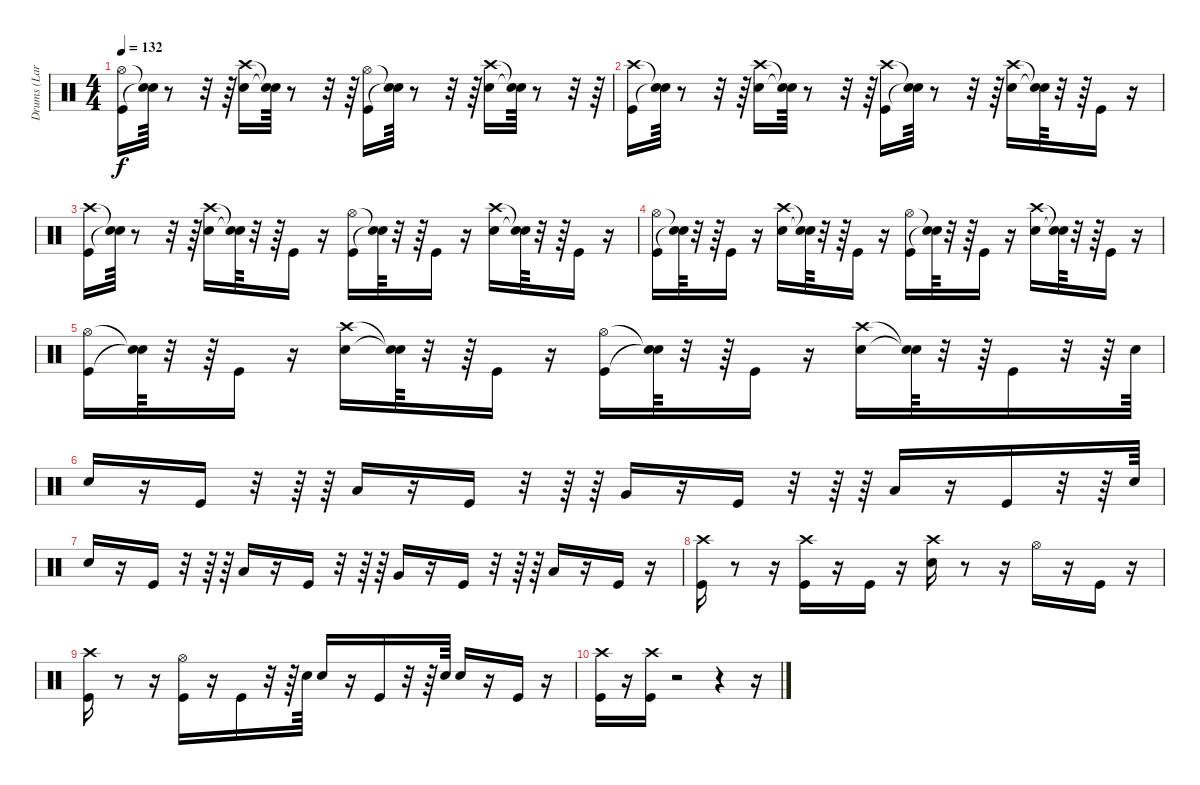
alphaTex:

\track ("Drums (Lars)" "Drums (Lar") {instrument percussion}
\staff {score}
\articulation defaults
\ts (4 4)
\tempo 132
\clef neutral
\ks c
("Hi-Hat (open)" "Kick (hit)").16{dy f} ("Snare (hit)"{t} "Snare (hit)"{t}).64 r.8 r.32 r.64 ("Snare (hit) 2" "Crash high (hit)").16 ("Snare (hit)"{t} "Snare (hit)"{t}).64 r.8 r.32 r.64 ("Kick (hit)" "Hi-Hat (open)").16 ("Snare (hit)"{t} "Snare (hit)"{t}).64 r.8 r.32 r.64 ("Snare (hit) 2" "Crash high (hit)").16 ("Snare (hit)"{t} "Snare (hit)"{t}).64 r.8 r.32 r.64 |
("Kick (hit)" "Crash high (hit)").16 ("Snare (hit)"{t} "Snare (hit)"{t}).64 r.8 r.32 r.64 ("Snare (hit) 2" "Crash high (hit)").16 ("Snare (hit)"{t} "Snare (hit)"{t}).64 r.8 r.32 r.64 ("Kick (hit)" "Crash high (hit)").16 ("Snare (hit)"{t} "Snare (hit)"{t}).64 r.8 r.32 r.64 ("Snare (hit) 2" "Crash high (hit)").16 ("Snare (hit)"{t} "Snare (hit)"{t}).64 r.32 r.64 "Kick (hit)".16 r.16 |
("Kick (hit)" "Crash high (hit)").16 ("Snare (hit)"{t} "Snare (hit)"{t}).64 r.8 r.32 r.64 ("Snare (hit) 2" "Crash high (hit)").16 ("Snare (hit)"{t} "Snare (hit)"{t}).64 r.32 r.64 "Kick (hit)".16 r.16 ("Hi-Hat (open)" "Kick (hit)").16 ("Snare (hit)"{t} "Snare (hit)"{t}).64 r.32 r.64 "Kick (hit)".16 r.16 ("Snare (hit) 2" "Crash high (hit)").16 ("Snare (hit)"{t} "Snare (hit)"{t}).64 r.32 r.64 "Kick (hit)".16 r.16 |
("Kick (hit)" "Hi-Hat (open)").16 ("Snare (hit)"{t} "Snare (hit)"{t}).64 r.32 r.64 "Kick (hit)".16 r.16 ("Snare (hit) 2" "Crash high (hit)").16 ("Snare (hit)"{t} "Snare (hit)"{t}).64 r.32 r.64 "Kick (hit)".16 r.16 ("Kick (hit)" "Hi-Hat (open)").16 ("Snare (hit)"{t} "Snare (hit)"{t}).64 r.32 r.64 "Kick (hit)".16 r.16 ("Snare (hit) 2" "Crash high (hit)").16 ("Snare (hit)"{t} "Snare (hit)"{t}).64 r.32 r.64 "Kick (hit)".16 r.16 |
("Hi-Hat (open)" "Kick (hit)").16 ("Snare (hit)"{t} "Snare (hit)"{t}).64 r.32 r.64 "Kick (hit)".16 r.16 ("Snare (hit) 2" "Crash high (hit)").16 ("Snare (hit)"{t} "Snare (hit)"{t}).64 r.32 r.64 "Kick (hit)".16 r.16 ("Kick (hit)" "Hi-Hat (open)").16 ("Snare (hit)"{t} "Snare (hit)"{t}).64 r.32 r.64 "Kick (hit)".16 r.16 ("Snare (hit) 2" "Crash high (hit)").16 ("Snare (hit)"{t} "Snare (hit)"{t}).64 r.32 r.64 "Kick (hit)".16 r.32 r.64 "Snare (hit) 2".64 |
"Snare (hit) 2".16 r.16 "Kick (hit)".16 r.32 r.64 r.64 "Low Tom (hit)".16 r.16 "Kick (hit)".16 r.32 r.64 r.64 "Very Low Tom (hit)".16 r.16 "Kick (hit)".16 r.32 r.64 r.64 "Low Floor Tom (hit)".16 r.16 "Kick (hit)".16 r.32 r.64 "Snare (hit) 2".64 |
"Snare (hit) 2".16 r.16 "Kick (hit)".16 r.32 r.64 r.64 "Low Tom (hit)".16 r.16 "Kick (hit)".16 r.32 r.64 r.64 "Very Low Tom (hit)".16 r.16 "Kick (hit)".16 r.32 r.64 r.64 "Low Floor Tom (hit)".16 r.16 "Kick (hit)".16 r.16 |
("Kick (hit)" "Crash high (hit)").16 r.8 r.16 ("Kick (hit)" "Crash high (hit)").16 r.16 "Kick (hit)".16 r.16 ("Snare (hit) 2" "Crash high (hit)").16 r.8 r.16 "Hi-Hat (open)".16 r.16 "Kick (hit)".16 r.16 |
("Kick (hit)" "Crash high (hit)").16 r.8 r.16 ("Kick (hit)" "Hi-Hat (open)").16 r.16 "Kick (hit)".16 r.32 r.64 "Snare (hit) 2".64 "Snare (hit) 2".16 r.16 "Kick (hit)".16 r.32 r.64 "Snare (hit) 2".64 "Snare (hit) 2".16 r.16 "Kick (hit)".16 r.16 |
("Kick (hit)" "Crash high (hit)").16 r.16 ("Crash high (hit)" "Kick (hit)").16 r.2 r.4 r.16
